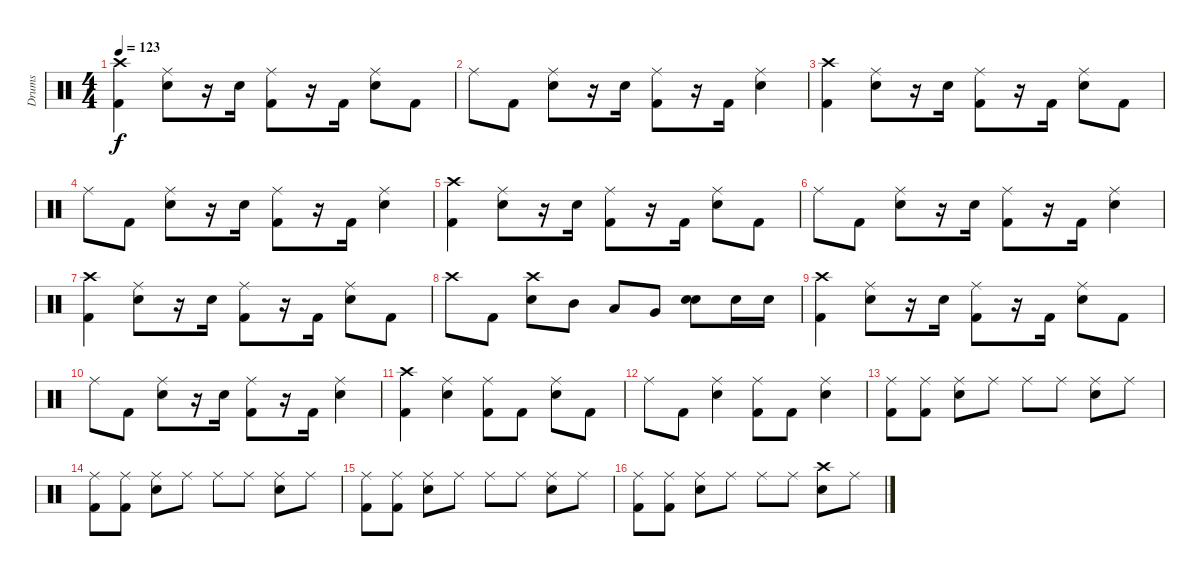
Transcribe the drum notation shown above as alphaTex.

\track ("Drums" "Drums") {instrument percussion}
\staff {score}
\articulation defaults
\ts (4 4)
\tempo 123
\clef neutral
\ks c
("Crash high (hit)" "Kick (hit) 2").4{dy f} ("Ride (middle)" "Snare (hit) 2").8 r.16 "Snare (hit) 2".16 ("Ride (middle)" "Kick (hit) 2").8 r.16 "Kick (hit) 2".16 ("Ride (middle)" "Snare (hit) 2").8 "Kick (hit) 2".8 |
"Ride (middle)".8 "Kick (hit) 2".8 ("Ride (middle)" "Snare (hit) 2").8 r.16 "Snare (hit) 2".16 ("Ride (middle)" "Kick (hit) 2").8 r.16 "Kick (hit) 2".16 ("Ride (middle)" "Snare (hit) 2").4 |
("Crash high (hit)" "Kick (hit) 2").4 ("Ride (middle)" "Snare (hit) 2").8 r.16 "Snare (hit) 2".16 ("Ride (middle)" "Kick (hit) 2").8 r.16 "Kick (hit) 2".16 ("Ride (middle)" "Snare (hit) 2").8 "Kick (hit) 2".8 |
"Ride (middle)".8 "Kick (hit) 2".8 ("Ride (middle)" "Snare (hit) 2").8 r.16 "Snare (hit) 2".16 ("Ride (middle)" "Kick (hit) 2").8 r.16 "Kick (hit) 2".16 ("Ride (middle)" "Snare (hit) 2").4 |
("Crash high (hit)" "Kick (hit) 2").4 ("Ride (middle)" "Snare (hit) 2").8 r.16 "Snare (hit) 2".16 ("Ride (middle)" "Kick (hit) 2").8 r.16 "Kick (hit) 2".16 ("Ride (middle)" "Snare (hit) 2").8 "Kick (hit) 2".8 |
"Ride (middle)".8 "Kick (hit) 2".8 ("Ride (middle)" "Snare (hit) 2").8 r.16 "Snare (hit) 2".16 ("Ride (middle)" "Kick (hit) 2").8 r.16 "Kick (hit) 2".16 ("Ride (middle)" "Snare (hit) 2").4 |
("Crash high (hit)" "Kick (hit) 2").4 ("Ride (middle)" "Snare (hit) 2").8 r.16 "Snare (hit) 2".16 ("Ride (middle)" "Kick (hit) 2").8 r.16 "Kick (hit) 2".16 ("Ride (middle)" "Snare (hit) 2").8 "Kick (hit) 2".8 |
"Crash high (hit)".8 "Kick (hit) 2".8 ("Crash high (hit)" "Snare (hit) 2").8 "Mid Tom (hit)".8 "Low Tom (hit)".8 "Very Low Tom (hit)".8 ("Snare (hit) 2" "Snare (hit) 2").8 "Snare (hit) 2".16 "Snare (hit) 2".16 |
("Crash high (hit)" "Kick (hit) 2").4 ("Ride (middle)" "Snare (hit) 2").8 r.16 "Snare (hit) 2".16 ("Ride (middle)" "Kick (hit) 2").8 r.16 "Kick (hit) 2".16 ("Ride (middle)" "Snare (hit) 2").8 "Kick (hit) 2".8 |
"Ride (middle)".8 "Kick (hit) 2".8 ("Ride (middle)" "Snare (hit) 2").8 r.16 "Snare (hit) 2".16 ("Ride (middle)" "Kick (hit) 2").8 r.16 "Kick (hit) 2".16 ("Ride (middle)" "Snare (hit) 2").4 |
("Crash high (hit)" "Kick (hit) 2").4 ("Ride (middle)" "Snare (hit) 2").4 ("Ride (middle)" "Kick (hit) 2").8 "Kick (hit) 2".8 ("Ride (middle)" "Snare (hit) 2").8 "Kick (hit) 2".8 |
"Ride (middle)".8 "Kick (hit) 2".8 ("Ride (middle)" "Snare (hit) 2").4 ("Ride (middle)" "Kick (hit) 2").8 "Kick (hit) 2".8 ("Ride (middle)" "Snare (hit) 2").4 |
("Ride (middle)" "Kick (hit) 2").8 ("Ride (middle)" "Kick (hit) 2").8 ("Ride (middle)" "Snare (hit) 2").8 "Ride (middle)".8 "Ride (middle)".8 "Ride (middle)".8 ("Ride (middle)" "Snare (hit) 2").8 "Ride (middle)".8 |
("Ride (middle)" "Kick (hit) 2").8 ("Ride (middle)" "Kick (hit) 2").8 ("Ride (middle)" "Snare (hit) 2").8 "Ride (middle)".8 "Ride (middle)".8 "Ride (middle)".8 ("Ride (middle)" "Snare (hit) 2").8 "Ride (middle)".8 |
("Ride (middle)" "Kick (hit) 2").8 ("Ride (middle)" "Kick (hit) 2").8 ("Ride (middle)" "Snare (hit) 2").8 "Ride (middle)".8 "Ride (middle)".8 "Ride (middle)".8 ("Ride (middle)" "Snare (hit) 2").8 "Ride (middle)".8 |
("Ride (middle)" "Kick (hit) 2").8 ("Ride (middle)" "Kick (hit) 2").8 ("Ride (middle)" "Snare (hit) 2").8 "Ride (middle)".8 "Ride (middle)".8 "Ride (middle)".8 ("Crash high (hit)" "Snare (hit) 2").8 "Ride (middle)".8
